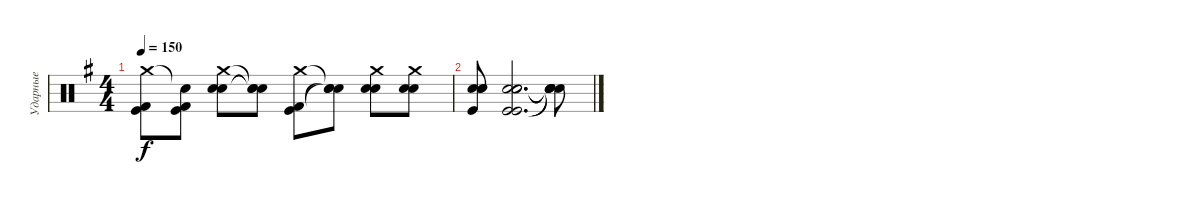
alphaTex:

\track ("Ударные" "Ударные") {instrument percussion}
\staff {score}
\articulation defaults
\ts (4 4)
\tempo 150
\clef neutral
\ks g
("Crash medium (hit)" "Kick (hit) 2" "Kick (hit)").8{dy f} ("Snare (hit)"{t} "Kick (hit) 2" "Kick (hit)").8 ("Crash medium (hit)" "Snare (hit) 2" "Electric Snare (hit)").8 ("Snare (hit)"{t} "Snare (hit) 2"{t} "Snare (hit)"{t}).8 ("Crash medium (hit)" "Kick (hit) 2" "Kick (hit)").8 ("Snare (hit)"{t} "Snare (hit)"{t} "Snare (hit)"{t}).8 ("Crash medium (hit)" "Snare (hit) 2" "Electric Snare (hit)").8 ("Crash medium (hit)" "Snare (hit) 2" "Electric Snare (hit)").8 |
("Metronome (bell)" "Electric Snare (hit)" "Kick (hit)" "Snare (hit) 2").8 ("Snare (hit) 2" "Kick (hit)" "Kick (hit)" "Electric Snare (hit)" "Hand Clap (hit)").2{d} ("Snare (hit)"{t} "Snare (hit)"{t} "Snare (hit)"{t} "Snare (hit)"{t} "Snare (hit)"{t}).8
